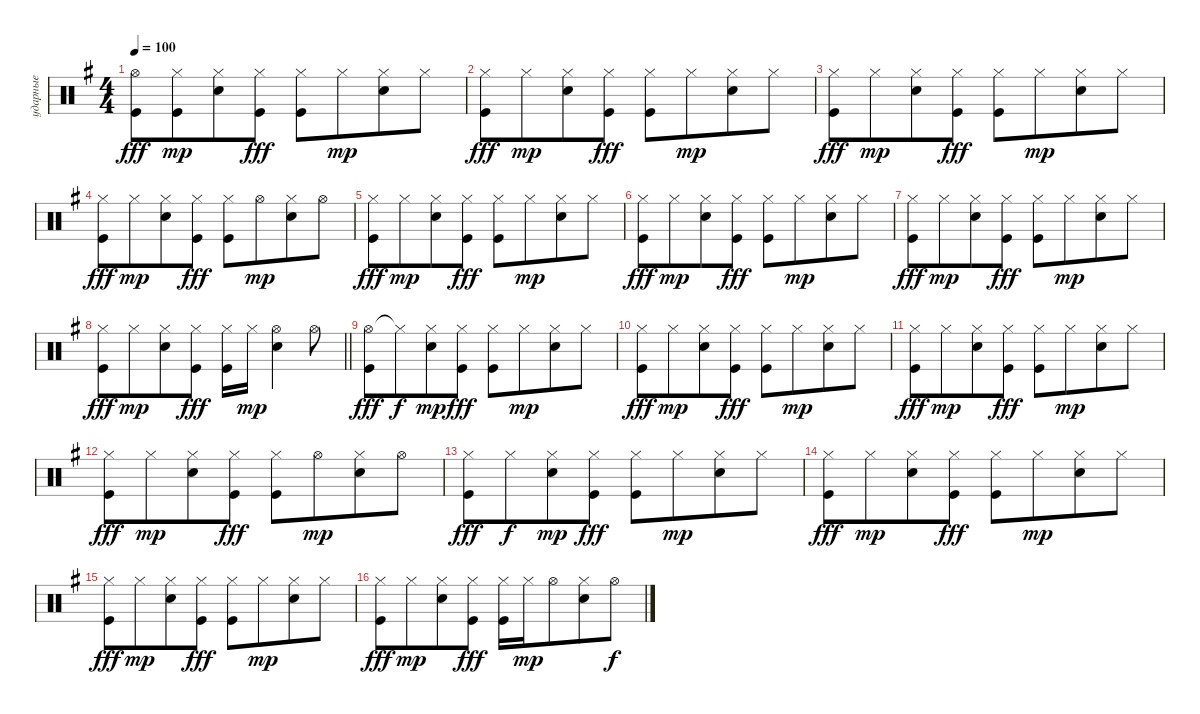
\track ("ударные" "ударные") {instrument percussion}
\staff {score}
\articulation defaults
\ts (4 4)
\section ("" "")
\tempo 100
\clef neutral
\ks eminor
("Hi-Hat (open)" "Kick (hit)").8{dy fff} ("Hi-Hat (closed)" "Kick (hit)").8{dy mp beam merge} ("Hi-Hat (closed)" "Snare (hit) 2").8 ("Hi-Hat (closed)" "Kick (hit)").8{dy fff} ("Hi-Hat (closed)" "Kick (hit)").8 "Hi-Hat (closed)".8{dy mp beam merge} ("Hi-Hat (closed)" "Snare (hit) 2").8 "Hi-Hat (closed)".8 |
("Hi-Hat (closed)" "Kick (hit)").8{dy fff} "Hi-Hat (closed)".8{dy mp beam merge} ("Hi-Hat (closed)" "Snare (hit) 2").8 ("Hi-Hat (closed)" "Kick (hit)").8{dy fff} ("Hi-Hat (closed)" "Kick (hit)").8 "Hi-Hat (closed)".8{dy mp beam merge} ("Hi-Hat (closed)" "Snare (hit) 2").8 "Hi-Hat (closed)".8 |
("Hi-Hat (closed)" "Kick (hit)").8{dy fff} "Hi-Hat (closed)".8{dy mp beam merge} ("Hi-Hat (closed)" "Snare (hit) 2").8 ("Hi-Hat (closed)" "Kick (hit)").8{dy fff} ("Hi-Hat (closed)" "Kick (hit)").8 "Hi-Hat (closed)".8{dy mp beam merge} ("Hi-Hat (closed)" "Snare (hit) 2").8 "Hi-Hat (closed)".8 |
("Hi-Hat (closed)" "Kick (hit)").8{dy fff} "Hi-Hat (closed)".8{dy mp beam merge} ("Hi-Hat (closed)" "Snare (hit) 2").8 ("Hi-Hat (closed)" "Kick (hit)").8{dy fff} ("Hi-Hat (closed)" "Kick (hit)").8 "Hi-Hat (open)".8{dy mp beam merge} ("Hi-Hat (closed)" "Snare (hit) 2").8 "Hi-Hat (open)".8 |
("Hi-Hat (closed)" "Kick (hit)").8{dy fff} "Hi-Hat (closed)".8{dy mp beam merge} ("Hi-Hat (closed)" "Snare (hit) 2").8 ("Hi-Hat (closed)" "Kick (hit)").8{dy fff} ("Hi-Hat (closed)" "Kick (hit)").8 "Hi-Hat (closed)".8{dy mp beam merge} ("Hi-Hat (closed)" "Snare (hit) 2").8 "Hi-Hat (closed)".8 |
("Hi-Hat (closed)" "Kick (hit)").8{dy fff} "Hi-Hat (closed)".8{dy mp beam merge} ("Hi-Hat (closed)" "Snare (hit) 2").8 ("Hi-Hat (closed)" "Kick (hit)").8{dy fff} ("Hi-Hat (closed)" "Kick (hit)").8 "Hi-Hat (closed)".8{dy mp beam merge} ("Hi-Hat (closed)" "Snare (hit) 2").8 "Hi-Hat (closed)".8 |
("Hi-Hat (closed)" "Kick (hit)").8{dy fff} "Hi-Hat (closed)".8{dy mp beam merge} ("Hi-Hat (closed)" "Snare (hit) 2").8 ("Hi-Hat (closed)" "Kick (hit)").8{dy fff} ("Hi-Hat (closed)" "Kick (hit)").8 "Hi-Hat (closed)".8{dy mp beam merge} ("Hi-Hat (closed)" "Snare (hit) 2").8 "Hi-Hat (closed)".8 |
\barLineRight lightlight
("Hi-Hat (closed)" "Kick (hit)").8{dy fff} "Hi-Hat (closed)".8{dy mp beam merge} ("Hi-Hat (closed)" "Snare (hit) 2").8 ("Hi-Hat (closed)" "Kick (hit)").8{dy fff} ("Hi-Hat (closed)" "Kick (hit)").16 "Hi-Hat (closed)".16{dy mp beam merge} ("Hi-Hat (open)" "Snare (hit) 2").4 "Hi-Hat (open)".8 |
\section ("" "")
("Hi-Hat (open)" "Kick (hit)").8{dy fff} "Hi-Hat (closed)"{t}.8{dy f beam merge} ("Hi-Hat (closed)" "Snare (hit) 2").8{dy mp} ("Hi-Hat (closed)" "Kick (hit)").8{dy fff} ("Hi-Hat (closed)" "Kick (hit)").8 "Hi-Hat (closed)".8{dy mp beam merge} ("Hi-Hat (closed)" "Snare (hit) 2").8 "Hi-Hat (closed)".8 |
("Hi-Hat (closed)" "Kick (hit)").8{dy fff} "Hi-Hat (closed)".8{dy mp beam merge} ("Hi-Hat (closed)" "Snare (hit) 2").8 ("Hi-Hat (closed)" "Kick (hit)").8{dy fff} ("Hi-Hat (closed)" "Kick (hit)").8 "Hi-Hat (closed)".8{dy mp beam merge} ("Hi-Hat (closed)" "Snare (hit) 2").8 "Hi-Hat (closed)".8 |
("Hi-Hat (closed)" "Kick (hit)").8{dy fff} "Hi-Hat (closed)".8{dy mp beam merge} ("Hi-Hat (closed)" "Snare (hit) 2").8 ("Hi-Hat (closed)" "Kick (hit)").8{dy fff} ("Hi-Hat (closed)" "Kick (hit)").8 "Hi-Hat (closed)".8{dy mp beam merge} ("Hi-Hat (closed)" "Snare (hit) 2").8 "Hi-Hat (closed)".8 |
("Hi-Hat (closed)" "Kick (hit)").8{dy fff} "Hi-Hat (closed)".8{dy mp beam merge} ("Hi-Hat (closed)" "Snare (hit) 2").8 ("Hi-Hat (closed)" "Kick (hit)").8{dy fff} ("Hi-Hat (closed)" "Kick (hit)").8 "Hi-Hat (open)".8{dy mp beam merge} ("Hi-Hat (closed)" "Snare (hit) 2").8 "Hi-Hat (open)".8 |
("Hi-Hat (closed)" "Kick (hit)").8{dy fff} "Hi-Hat (closed)".8{dy f beam merge} ("Hi-Hat (closed)" "Snare (hit) 2").8{dy mp} ("Hi-Hat (closed)" "Kick (hit)").8{dy fff} ("Hi-Hat (closed)" "Kick (hit)").8 "Hi-Hat (closed)".8{dy mp beam merge} ("Hi-Hat (closed)" "Snare (hit) 2").8 "Hi-Hat (closed)".8 |
("Hi-Hat (closed)" "Kick (hit)").8{dy fff} "Hi-Hat (closed)".8{dy mp beam merge} ("Hi-Hat (closed)" "Snare (hit) 2").8 ("Hi-Hat (closed)" "Kick (hit)").8{dy fff} ("Hi-Hat (closed)" "Kick (hit)").8 "Hi-Hat (closed)".8{dy mp beam merge} ("Hi-Hat (closed)" "Snare (hit) 2").8 "Hi-Hat (closed)".8 |
("Hi-Hat (closed)" "Kick (hit)").8{dy fff} "Hi-Hat (closed)".8{dy mp beam merge} ("Hi-Hat (closed)" "Snare (hit) 2").8 ("Hi-Hat (closed)" "Kick (hit)").8{dy fff} ("Hi-Hat (closed)" "Kick (hit)").8 "Hi-Hat (closed)".8{dy mp beam merge} ("Hi-Hat (closed)" "Snare (hit) 2").8 "Hi-Hat (closed)".8 |
("Hi-Hat (closed)" "Kick (hit)").8{dy fff} "Hi-Hat (closed)".8{dy mp beam merge} ("Hi-Hat (closed)" "Snare (hit) 2").8 ("Hi-Hat (closed)" "Kick (hit)").8{dy fff} ("Hi-Hat (closed)" "Kick (hit)").16 "Hi-Hat (closed)".16{dy mp beam merge} "Hi-Hat (open)".8{beam merge} ("Hi-Hat (closed)" "Snare (hit) 2").8 "Hi-Hat (open)".8{dy f}
